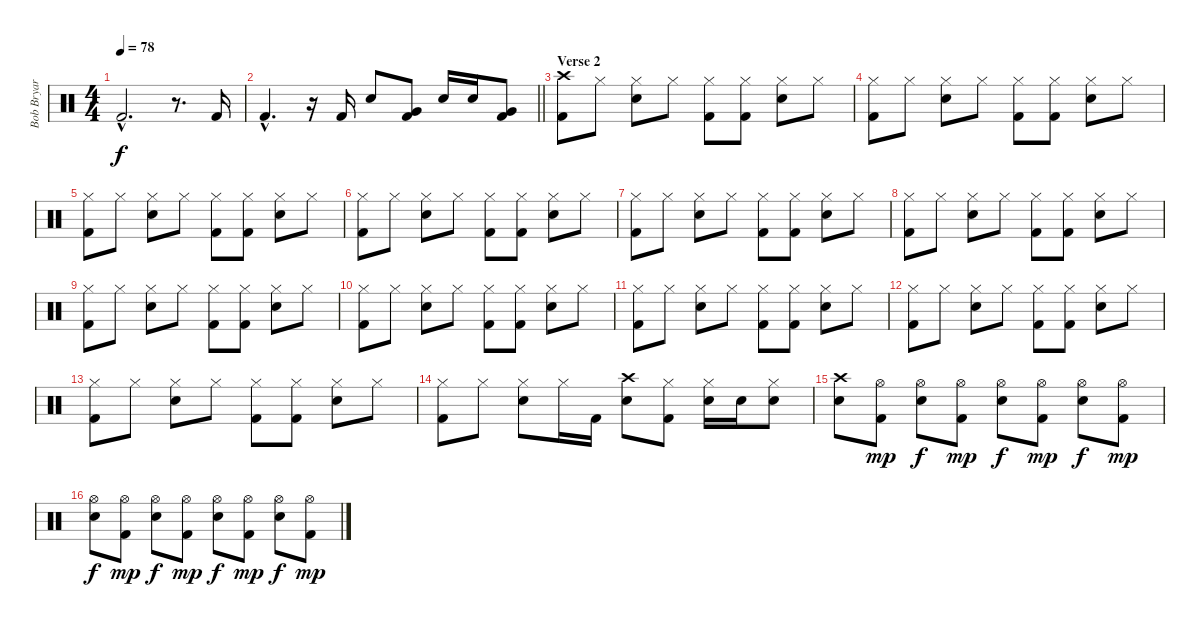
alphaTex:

\track ("Bob Bryar (drums)" "Bob Bryar ") {instrument percussion}
\staff {score}
\articulation defaults
\ts (4 4)
\tempo 78
\clef neutral
\ks c "Kick (hit) 2"{hac}.2{d dy f}
r.8{d} "Kick (hit) 2".16 |
\barLineRight lightlight "Kick (hit) 2"{hac}.4{d}
r.16 "Kick (hit) 2".16 "Electric Snare (hit)".8 ("Very Low Tom (hit)" "Kick (hit) 2").8 "Electric Snare (hit)".16 "Electric Snare (hit)".16 ("Very Low Tom (hit)" "Kick (hit) 2").8 |
\section ("" "Verse 2")
("Crash high (hit)" "Kick (hit) 2").8 "Hi-Hat (closed)".8 ("Hi-Hat (closed)" "Electric Snare (hit)").8 "Hi-Hat (closed)".8 ("Hi-Hat (closed)" "Kick (hit) 2").8 ("Hi-Hat (closed)" "Kick (hit) 2").8 ("Hi-Hat (closed)" "Electric Snare (hit)").8 "Hi-Hat (closed)".8 |
("Hi-Hat (closed)" "Kick (hit) 2").8 "Hi-Hat (closed)".8 ("Hi-Hat (closed)" "Electric Snare (hit)").8 "Hi-Hat (closed)".8 ("Hi-Hat (closed)" "Kick (hit) 2").8 ("Hi-Hat (closed)" "Kick (hit) 2").8 ("Hi-Hat (closed)" "Electric Snare (hit)").8 "Hi-Hat (closed)".8 |
("Hi-Hat (closed)" "Kick (hit) 2").8 "Hi-Hat (closed)".8 ("Hi-Hat (closed)" "Electric Snare (hit)").8 "Hi-Hat (closed)".8 ("Hi-Hat (closed)" "Kick (hit) 2").8 ("Hi-Hat (closed)" "Kick (hit) 2").8 ("Hi-Hat (closed)" "Electric Snare (hit)").8 "Hi-Hat (closed)".8 |
("Hi-Hat (closed)" "Kick (hit) 2").8 "Hi-Hat (closed)".8 ("Hi-Hat (closed)" "Electric Snare (hit)").8 "Hi-Hat (closed)".8 ("Hi-Hat (closed)" "Kick (hit) 2").8 ("Hi-Hat (closed)" "Kick (hit) 2").8 ("Hi-Hat (closed)" "Electric Snare (hit)").8 "Hi-Hat (closed)".8 |
("Hi-Hat (closed)" "Kick (hit) 2").8 "Hi-Hat (closed)".8 ("Hi-Hat (closed)" "Electric Snare (hit)").8 "Hi-Hat (closed)".8 ("Hi-Hat (closed)" "Kick (hit) 2").8 ("Hi-Hat (closed)" "Kick (hit) 2").8 ("Hi-Hat (closed)" "Electric Snare (hit)").8 "Hi-Hat (closed)".8 |
("Hi-Hat (closed)" "Kick (hit) 2").8 "Hi-Hat (closed)".8 ("Hi-Hat (closed)" "Electric Snare (hit)").8 "Hi-Hat (closed)".8 ("Hi-Hat (closed)" "Kick (hit) 2").8 ("Hi-Hat (closed)" "Kick (hit) 2").8 ("Hi-Hat (closed)" "Electric Snare (hit)").8 "Hi-Hat (closed)".8 |
("Hi-Hat (closed)" "Kick (hit) 2").8 "Hi-Hat (closed)".8 ("Hi-Hat (closed)" "Electric Snare (hit)").8 "Hi-Hat (closed)".8 ("Hi-Hat (closed)" "Kick (hit) 2").8 ("Hi-Hat (closed)" "Kick (hit) 2").8 ("Hi-Hat (closed)" "Electric Snare (hit)").8 "Hi-Hat (closed)".8 |
("Hi-Hat (closed)" "Kick (hit) 2").8 "Hi-Hat (closed)".8 ("Hi-Hat (closed)" "Electric Snare (hit)").8 "Hi-Hat (closed)".8 ("Hi-Hat (closed)" "Kick (hit) 2").8 ("Hi-Hat (closed)" "Kick (hit) 2").8 ("Hi-Hat (closed)" "Electric Snare (hit)").8 "Hi-Hat (closed)".8 |
("Hi-Hat (closed)" "Kick (hit) 2").8 "Hi-Hat (closed)".8 ("Hi-Hat (closed)" "Electric Snare (hit)").8 "Hi-Hat (closed)".8 ("Hi-Hat (closed)" "Kick (hit) 2").8 ("Hi-Hat (closed)" "Kick (hit) 2").8 ("Hi-Hat (closed)" "Electric Snare (hit)").8 "Hi-Hat (closed)".8 |
("Hi-Hat (closed)" "Kick (hit) 2").8 "Hi-Hat (closed)".8 ("Hi-Hat (closed)" "Electric Snare (hit)").8 "Hi-Hat (closed)".8 ("Hi-Hat (closed)" "Kick (hit) 2").8 ("Hi-Hat (closed)" "Kick (hit) 2").8 ("Hi-Hat (closed)" "Electric Snare (hit)").8 "Hi-Hat (closed)".8 |
("Hi-Hat (closed)" "Kick (hit) 2").8 "Hi-Hat (closed)".8 ("Hi-Hat (closed)" "Electric Snare (hit)").8 "Hi-Hat (closed)".8 ("Hi-Hat (closed)" "Kick (hit) 2").8 ("Hi-Hat (closed)" "Kick (hit) 2").8 ("Hi-Hat (closed)" "Electric Snare (hit)").8 "Hi-Hat (closed)".8 |
("Hi-Hat (closed)" "Kick (hit) 2").8 "Hi-Hat (closed)".8 ("Hi-Hat (closed)" "Electric Snare (hit)").8 "Hi-Hat (closed)".16 "Kick (hit) 2".16 ("Crash high (hit)" "Electric Snare (hit)").8 ("Hi-Hat (closed)" "Kick (hit) 2").8 ("Hi-Hat (closed)" "Electric Snare (hit)").16 "Electric Snare (hit)".16 ("Hi-Hat (closed)" "Electric Snare (hit)").8 |
("Crash high (hit)" "Electric Snare (hit)").8 ("Hi-Hat (open)" "Kick (hit) 2").8{dy mp} ("Hi-Hat (open)" "Electric Snare (hit)").8{dy f} ("Hi-Hat (open)" "Kick (hit) 2").8{dy mp} ("Hi-Hat (open)" "Electric Snare (hit)").8{dy f} ("Hi-Hat (open)" "Kick (hit) 2").8{dy mp} ("Hi-Hat (open)" "Electric Snare (hit)").8{dy f} ("Hi-Hat (open)" "Kick (hit) 2").8{dy mp} |
("Hi-Hat (open)" "Electric Snare (hit)").8{dy f} ("Hi-Hat (open)" "Kick (hit) 2").8{dy mp} ("Hi-Hat (open)" "Electric Snare (hit)").8{dy f} ("Hi-Hat (open)" "Kick (hit) 2").8{dy mp} ("Hi-Hat (open)" "Electric Snare (hit)").8{dy f} ("Hi-Hat (open)" "Kick (hit) 2").8{dy mp} ("Hi-Hat (open)" "Electric Snare (hit)").8{dy f} ("Hi-Hat (open)" "Kick (hit) 2").8{dy mp}
